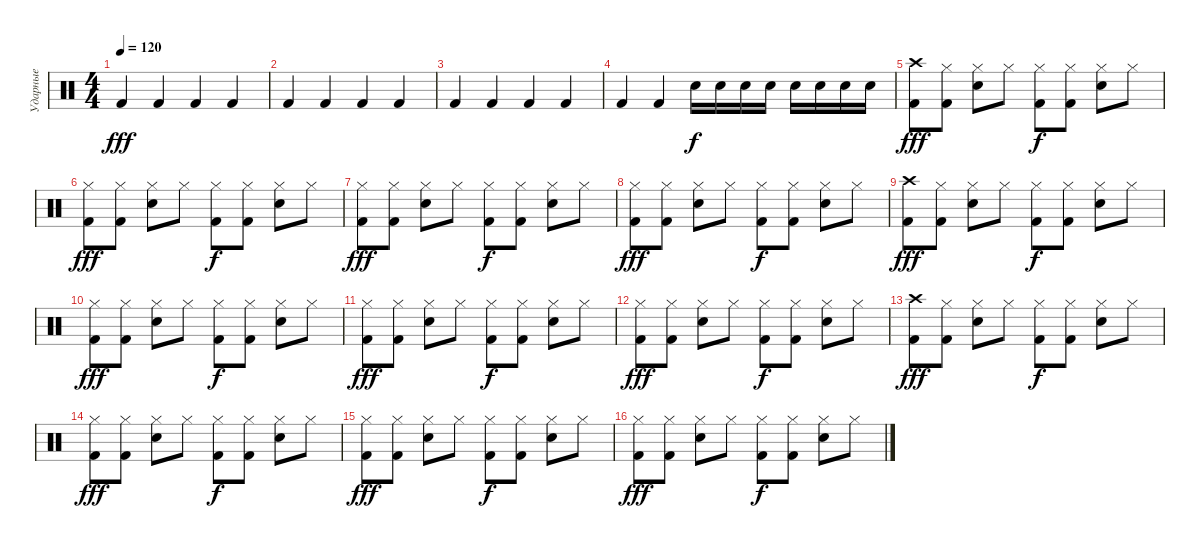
\track ("Ударные" "Ударные") {instrument percussion}
\staff {score}
\articulation defaults
\ts (4 4)
\tempo 120
\clef neutral
\ks c "Kick (hit) 2".4{dy fff} "Kick (hit) 2".4 "Kick (hit) 2".4 "Kick (hit) 2".4
|
"Kick (hit) 2".4 "Kick (hit) 2".4 "Kick (hit) 2".4 "Kick (hit) 2".4 |
"Kick (hit) 2".4 "Kick (hit) 2".4 "Kick (hit) 2".4 "Kick (hit) 2".4 |
"Kick (hit) 2".4 "Kick (hit) 2".4 "Snare (hit) 2".16{dy f} "Snare (hit) 2".16 "Snare (hit) 2".16 "Snare (hit) 2".16 "Snare (hit) 2".16 "Snare (hit) 2".16 "Snare (hit) 2".16 "Snare (hit) 2".16 |
("Crash high (hit)" "Kick (hit) 2").8{dy fff} ("Hi-Hat (closed)" "Kick (hit) 2").8 ("Hi-Hat (closed)" "Snare (hit) 2").8 "Hi-Hat (closed)".8 ("Hi-Hat (closed)" "Kick (hit) 2").8{dy f} ("Hi-Hat (closed)" "Kick (hit) 2").8 ("Hi-Hat (closed)" "Snare (hit) 2").8 "Hi-Hat (closed)".8 |
("Hi-Hat (closed)" "Kick (hit) 2").8{dy fff} ("Hi-Hat (closed)" "Kick (hit) 2").8 ("Hi-Hat (closed)" "Snare (hit) 2").8 "Hi-Hat (closed)".8 ("Hi-Hat (closed)" "Kick (hit) 2").8{dy f} ("Hi-Hat (closed)" "Kick (hit) 2").8 ("Hi-Hat (closed)" "Snare (hit) 2").8 "Hi-Hat (closed)".8 |
("Hi-Hat (closed)" "Kick (hit) 2").8{dy fff} ("Hi-Hat (closed)" "Kick (hit) 2").8 ("Hi-Hat (closed)" "Snare (hit) 2").8 "Hi-Hat (closed)".8 ("Hi-Hat (closed)" "Kick (hit) 2").8{dy f} ("Hi-Hat (closed)" "Kick (hit) 2").8 ("Hi-Hat (closed)" "Snare (hit) 2").8 "Hi-Hat (closed)".8 |
("Hi-Hat (closed)" "Kick (hit) 2").8{dy fff} ("Hi-Hat (closed)" "Kick (hit) 2").8 ("Hi-Hat (closed)" "Snare (hit) 2").8 "Hi-Hat (closed)".8 ("Hi-Hat (closed)" "Kick (hit) 2").8{dy f} ("Hi-Hat (closed)" "Kick (hit) 2").8 ("Hi-Hat (closed)" "Snare (hit) 2").8 "Hi-Hat (closed)".8 |
("Crash high (hit)" "Kick (hit) 2").8{dy fff} ("Hi-Hat (closed)" "Kick (hit) 2").8 ("Hi-Hat (closed)" "Snare (hit) 2").8 "Hi-Hat (closed)".8 ("Hi-Hat (closed)" "Kick (hit) 2").8{dy f} ("Hi-Hat (closed)" "Kick (hit) 2").8 ("Hi-Hat (closed)" "Snare (hit) 2").8 "Hi-Hat (closed)".8 |
("Hi-Hat (closed)" "Kick (hit) 2").8{dy fff} ("Hi-Hat (closed)" "Kick (hit) 2").8 ("Hi-Hat (closed)" "Snare (hit) 2").8 "Hi-Hat (closed)".8 ("Hi-Hat (closed)" "Kick (hit) 2").8{dy f} ("Hi-Hat (closed)" "Kick (hit) 2").8 ("Hi-Hat (closed)" "Snare (hit) 2").8 "Hi-Hat (closed)".8 |
("Hi-Hat (closed)" "Kick (hit) 2").8{dy fff} ("Hi-Hat (closed)" "Kick (hit) 2").8 ("Hi-Hat (closed)" "Snare (hit) 2").8 "Hi-Hat (closed)".8 ("Hi-Hat (closed)" "Kick (hit) 2").8{dy f} ("Hi-Hat (closed)" "Kick (hit) 2").8 ("Hi-Hat (closed)" "Snare (hit) 2").8 "Hi-Hat (closed)".8 |
("Hi-Hat (closed)" "Kick (hit) 2").8{dy fff} ("Hi-Hat (closed)" "Kick (hit) 2").8 ("Hi-Hat (closed)" "Snare (hit) 2").8 "Hi-Hat (closed)".8 ("Hi-Hat (closed)" "Kick (hit) 2").8{dy f} ("Hi-Hat (closed)" "Kick (hit) 2").8 ("Hi-Hat (closed)" "Snare (hit) 2").8 "Hi-Hat (closed)".8 |
("Crash high (hit)" "Kick (hit) 2").8{dy fff} ("Hi-Hat (closed)" "Kick (hit) 2").8 ("Hi-Hat (closed)" "Snare (hit) 2").8 "Hi-Hat (closed)".8 ("Hi-Hat (closed)" "Kick (hit) 2").8{dy f} ("Hi-Hat (closed)" "Kick (hit) 2").8 ("Hi-Hat (closed)" "Snare (hit) 2").8 "Hi-Hat (closed)".8 |
("Hi-Hat (closed)" "Kick (hit) 2").8{dy fff} ("Hi-Hat (closed)" "Kick (hit) 2").8 ("Hi-Hat (closed)" "Snare (hit) 2").8 "Hi-Hat (closed)".8 ("Hi-Hat (closed)" "Kick (hit) 2").8{dy f} ("Hi-Hat (closed)" "Kick (hit) 2").8 ("Hi-Hat (closed)" "Snare (hit) 2").8 "Hi-Hat (closed)".8 |
("Hi-Hat (closed)" "Kick (hit) 2").8{dy fff} ("Hi-Hat (closed)" "Kick (hit) 2").8 ("Hi-Hat (closed)" "Snare (hit) 2").8 "Hi-Hat (closed)".8 ("Hi-Hat (closed)" "Kick (hit) 2").8{dy f} ("Hi-Hat (closed)" "Kick (hit) 2").8 ("Hi-Hat (closed)" "Snare (hit) 2").8 "Hi-Hat (closed)".8 |
("Hi-Hat (closed)" "Kick (hit) 2").8{dy fff} ("Hi-Hat (closed)" "Kick (hit) 2").8 ("Hi-Hat (closed)" "Snare (hit) 2").8 "Hi-Hat (closed)".8 ("Hi-Hat (closed)" "Kick (hit) 2").8{dy f} ("Hi-Hat (closed)" "Kick (hit) 2").8 ("Hi-Hat (closed)" "Snare (hit) 2").8 "Hi-Hat (closed)".8
